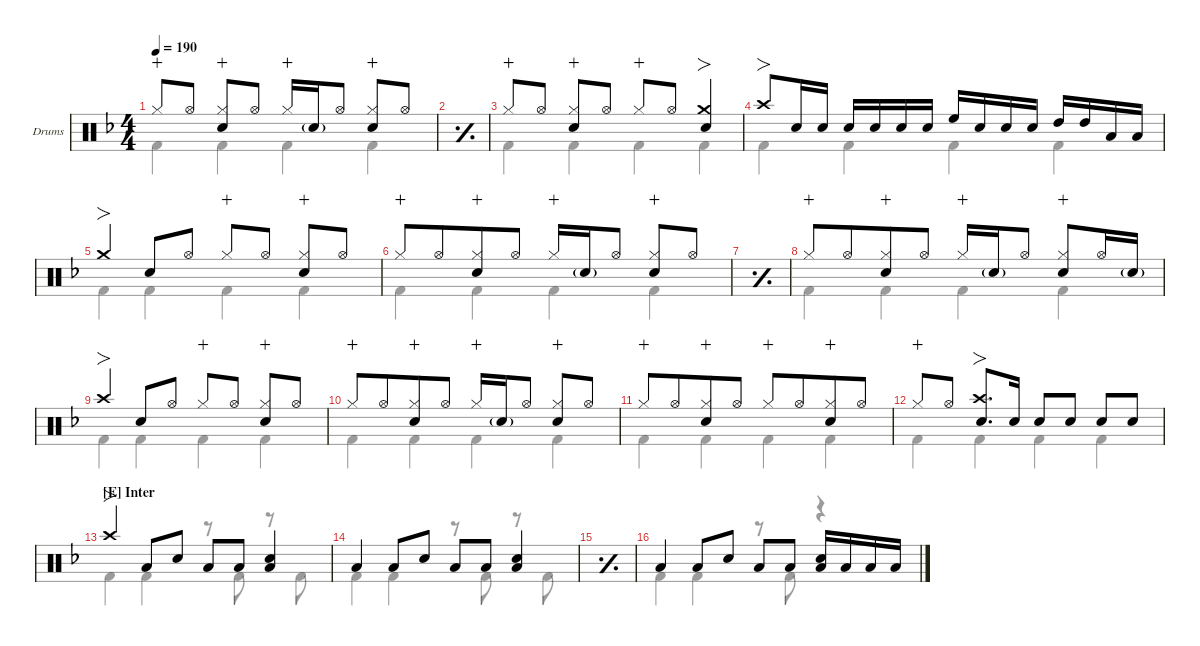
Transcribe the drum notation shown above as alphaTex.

\defaultSystemsLayout 4
\hideDynamics
\bracketExtendMode nobrackets
\firstSystemTrackNameOrientation horizontal
\track ("Drums" "Drums") {defaultSystemsLayout 4 instrument percussion}
\staff {score}
\articulation defaults
\voice
\ts (4 4)
\tempo 190
\clef neutral
\scale
0.266618
\ks dminor "Hi-Hat (closed)"{acc forcenatural}.8{dy mp wahc} "Hi-Hat (open)"{acc forcenatural}.8{dy f}
("Hi-Hat (closed)"{acc forcenatural} "Snare (hit) 2"{acc forcenatural}).8{wahc} "Hi-Hat (open)"{acc forcenatural}.8 "Hi-Hat (closed)"{acc forcenatural}.16{dy mp wahc} "Snare (hit) 2"{g acc forcenatural}.16{dy mf} "Hi-Hat (open)"{acc forcenatural}.8{dy f beam split} ("Hi-Hat (closed)"{acc forcenatural} "Snare (hit) 2"{acc forcenatural}).8{wahc} "Hi-Hat (open)"{acc forcenatural}.8 |
\simile simple
\scale
0.244461 |
\simile none
\scale
0.24446 "Hi-Hat (closed)"{acc forcenatural}.8{dy mp wahc} "Hi-Hat (open)"{acc forcenatural}.8{dy f} ("Hi-Hat (closed)"{acc forcenatural} "Snare (hit) 2"{acc forcenatural}).8{wahc} "Hi-Hat (open)"{acc forcenatural}.8 "Hi-Hat (closed)"{acc forcenatural}.8{dy mp wahc} "Hi-Hat (open)"{acc forcenatural}.8{dy f} ("Crash medium (hit)"{acc forcenatural} "Snare (hit) 2"{acc forcenatural}).4{fo} |
\scale
0.244461 "Crash high (hit)"{acc forcenatural}.8{fo} "Snare (hit) 2"{acc forcenatural}.16 "Snare (hit) 2"{acc forcenatural}.16{dy mf beam split} "Snare (hit) 2"{acc forcenatural}.16{dy f} "Snare (hit) 2"{acc forcenatural}.16{dy mp} "Snare (hit) 2"{acc forcenatural}.16{dy mf} "Snare (hit) 2"{acc forcenatural}.16{dy mp} "High Floor Tom (hit)"{acc forcenatural}.16{dy f} "Snare (hit) 2"{acc forcenatural}.16{dy mp} "Snare (hit) 2"{acc forcenatural}.16{dy mf} "Snare (hit) 2"{acc forcenatural}.16{dy mp beam split} "High Tom (hit)"{acc forcenatural}.16{dy f} "High Tom (hit)"{acc forcenatural}.16 "Low Tom (hit)"{acc forcenatural}.16 "Low Tom (hit)"{acc forcenatural}.16 |
\scale
0.266618 "Crash medium (hit)"{acc forcenatural}.4{fo} "Snare (hit) 2"{acc forcenatural}.8 "Hi-Hat (open)"{acc forcenatural}.8 "Hi-Hat (closed)"{acc forcenatural}.8{dy mp wahc} "Hi-Hat (open)"{acc forcenatural}.8{dy f} ("Hi-Hat (closed)"{acc forcenatural} "Snare (hit) 2"{acc forcenatural}).8{wahc} "Hi-Hat (open)"{acc forcenatural}.8 |
\scale
0.244461 "Hi-Hat (closed)"{acc forcenatural}.8{dy mp wahc beam merge} "Hi-Hat (open)"{acc forcenatural}.8{dy f beam merge} ("Hi-Hat (closed)"{acc forcenatural} "Snare (hit) 2"{acc forcenatural}).8{wahc beam merge} "Hi-Hat (open)"{acc forcenatural}.8 "Hi-Hat (closed)"{acc forcenatural}.16{dy mp wahc} "Snare (hit) 2"{g acc forcenatural}.16{dy mf} "Hi-Hat (open)"{acc forcenatural}.8{dy f beam split} ("Hi-Hat (closed)"{acc forcenatural} "Snare (hit) 2"{acc forcenatural}).8{wahc} "Hi-Hat (open)"{acc forcenatural}.8 |
\simile simple
\scale
0.24446 |
\simile none
\scale
0.244461 "Hi-Hat (closed)"{acc forcenatural}.8{dy mp wahc beam merge} "Hi-Hat (open)"{acc forcenatural}.8{dy f beam merge} ("Hi-Hat (closed)"{acc forcenatural} "Snare (hit) 2"{acc forcenatural}).8{wahc beam merge} "Hi-Hat (open)"{acc forcenatural}.8 "Hi-Hat (closed)"{acc forcenatural}.16{dy mp wahc} "Snare (hit) 2"{g acc forcenatural}.16{dy mf} "Hi-Hat (open)"{acc forcenatural}.8{dy f beam split} ("Hi-Hat (closed)"{acc forcenatural} "Snare (hit) 2"{acc forcenatural}).8{wahc} "Hi-Hat (open)"{acc forcenatural}.16 "Snare (hit) 2"{g acc forcenatural}.16{dy mf} |
\scale
0.266618 "Crash high (hit)"{acc forcenatural}.4{fo dy f} "Snare (hit) 2"{acc forcenatural}.8 "Hi-Hat (open)"{acc forcenatural}.8 "Hi-Hat (closed)"{acc forcenatural}.8{dy mp wahc} "Hi-Hat (open)"{acc forcenatural}.8{dy f} ("Hi-Hat (closed)"{acc forcenatural} "Snare (hit) 2"{acc forcenatural}).8{wahc} "Hi-Hat (open)"{acc forcenatural}.8 |
\scale
0.244461 "Hi-Hat (closed)"{acc forcenatural}.8{dy mp wahc beam merge} "Hi-Hat (open)"{acc forcenatural}.8{dy f beam merge} ("Hi-Hat (closed)"{acc forcenatural} "Snare (hit) 2"{acc forcenatural}).8{wahc beam merge} "Hi-Hat (open)"{acc forcenatural}.8 "Hi-Hat (closed)"{acc forcenatural}.16{dy mp wahc} "Snare (hit) 2"{g acc forcenatural}.16{dy mf} "Hi-Hat (open)"{acc forcenatural}.8{dy f beam split} ("Hi-Hat (closed)"{acc forcenatural} "Snare (hit) 2"{acc forcenatural}).8{wahc} "Hi-Hat (open)"{acc forcenatural}.8 |
\scale
0.24446 "Hi-Hat (closed)"{acc forcenatural}.8{dy mp wahc beam merge} "Hi-Hat (open)"{acc forcenatural}.8{dy f beam merge} ("Hi-Hat (closed)"{acc forcenatural} "Snare (hit) 2"{acc forcenatural}).8{wahc beam merge} "Hi-Hat (open)"{acc forcenatural}.8 "Hi-Hat (closed)"{acc forcenatural}.8{dy mp wahc beam merge} "Hi-Hat (open)"{acc forcenatural}.8{dy f beam merge} ("Hi-Hat (closed)"{acc forcenatural} "Snare (hit) 2"{acc forcenatural}).8{wahc beam merge} "Hi-Hat (open)"{acc forcenatural}.8 |
\scale
0.244461 "Hi-Hat (closed)"{acc forcenatural}.8{dy mp wahc beam merge} "Hi-Hat (open)"{acc forcenatural}.8{dy f beam split} ("Crash high (hit)"{acc forcenatural} "Snare (hit) 2"{acc forcenatural}).8{fo d beam merge} "Snare (hit) 2"{acc forcenatural}.16 "Snare (hit) 2"{acc forcenatural}.8 "Snare (hit) 2"{acc forcenatural}.8 "Snare (hit) 2"{acc forcenatural}.8 "Snare (hit) 2"{acc forcenatural}.8 |
\section ("E" "Inter")
\scale
0.266618 "Crash high (hit)"{acc forcenatural}.4{fo} "Low Tom (hit)"{acc forcenatural}.8 "Snare (hit) 2"{acc forcenatural}.8 "Low Tom (hit)"{acc forcenatural}.8 "Low Tom (hit)"{acc forcenatural}.8 ("Low Tom (hit)"{acc forcenatural} "Snare (hit) 2"{acc forcenatural}).4 |
\scale
0.244461 "Low Tom (hit)"{acc forcenatural}.4 "Low Tom (hit)"{acc forcenatural}.8 "Snare (hit) 2"{acc forcenatural}.8 "Low Tom (hit)"{acc forcenatural}.8 "Low Tom (hit)"{acc forcenatural}.8 ("Low Tom (hit)"{acc forcenatural} "Snare (hit) 2"{acc forcenatural}).4 |
\simile simple
\scale
0.24446 |
\simile none
\scale
0.244461 "Low Tom (hit)"{acc forcenatural}.4 "Low Tom (hit)"{acc forcenatural}.8 "Snare (hit) 2"{acc forcenatural}.8 "Low Tom (hit)"{acc forcenatural}.8 "Low Tom (hit)"{acc forcenatural}.8{beam split} ("Snare (hit) 2"{acc forcenatural} "Low Tom (hit)"{acc forcenatural}).16 "Low Tom (hit)"{acc forcenatural}.16 "Low Tom (hit)"{acc forcenatural}.16 "Low Tom (hit)"{acc forcenatural}.16
\voice
\clef neutral
\ottava regular
\simile none
\scale
0.266618
\ks dminor "Kick (hit) 2"{acc forcenatural}.4{dy f} "Kick (hit) 2"{acc forcenatural}.4 "Kick (hit) 2"{acc forcenatural}.4 "Kick (hit) 2"{acc forcenatural}.4
|
\simile simple
\scale
0.244461 |
\simile none
\scale
0.24446 "Kick (hit) 2"{acc forcenatural}.4 "Kick (hit) 2"{acc forcenatural}.4 "Kick (hit) 2"{acc forcenatural}.4 "Kick (hit) 2"{acc forcenatural}.4 |
\scale
0.244461 "Kick (hit) 2"{acc forcenatural}.4 "Kick (hit) 2"{acc forcenatural}.4 "Kick (hit) 2"{acc forcenatural}.4 "Kick (hit) 2"{acc forcenatural}.4 |
\scale
0.266618 "Kick (hit) 2"{acc forcenatural}.4 "Kick (hit) 2"{acc forcenatural}.4 "Kick (hit) 2"{acc forcenatural}.4 "Kick (hit) 2"{acc forcenatural}.4 |
\scale
0.244461 "Kick (hit) 2"{acc forcenatural}.4 "Kick (hit) 2"{acc forcenatural}.4 "Kick (hit) 2"{acc forcenatural}.4 "Kick (hit) 2"{acc forcenatural}.4 |
\simile simple
\scale
0.24446 |
\simile none
\scale
0.244461 "Kick (hit) 2"{acc forcenatural}.4 "Kick (hit) 2"{acc forcenatural}.4 "Kick (hit) 2"{acc forcenatural}.4 "Kick (hit) 2"{acc forcenatural}.4 |
\scale
0.266618 "Kick (hit) 2"{acc forcenatural}.4 "Kick (hit) 2"{acc forcenatural}.4 "Kick (hit) 2"{acc forcenatural}.4 "Kick (hit) 2"{acc forcenatural}.4 |
\scale
0.244461 "Kick (hit) 2"{acc forcenatural}.4 "Kick (hit) 2"{acc forcenatural}.4 "Kick (hit) 2"{acc forcenatural}.4 "Kick (hit) 2"{acc forcenatural}.4 |
\scale
0.24446 "Kick (hit) 2"{acc forcenatural}.4 "Kick (hit) 2"{acc forcenatural}.4 "Kick (hit) 2"{acc forcenatural}.4 "Kick (hit) 2"{acc forcenatural}.4 |
\scale
0.244461 "Kick (hit) 2"{acc forcenatural}.4 "Kick (hit) 2"{acc forcenatural}.4 "Kick (hit) 2"{acc forcenatural}.4 "Kick (hit) 2"{acc forcenatural}.4 |
\scale
0.266618 "Kick (hit) 2"{acc forcenatural}.4 "Kick (hit) 2"{acc forcenatural}.4 r.8 "Kick (hit) 2"{acc forcenatural}.8 r.8 "Kick (hit) 2"{acc forcenatural}.8 |
\scale
0.244461 "Kick (hit) 2"{acc forcenatural}.4 "Kick (hit) 2"{acc forcenatural}.4 r.8 "Kick (hit) 2"{acc forcenatural}.8 r.8 "Kick (hit) 2"{acc forcenatural}.8 |
\simile simple
\scale
0.24446 |
\simile none
\scale
0.244461 "Kick (hit) 2"{acc forcenatural}.4 "Kick (hit) 2"{acc forcenatural}.4 r.8 "Kick (hit) 2"{acc forcenatural}.8 r.4
